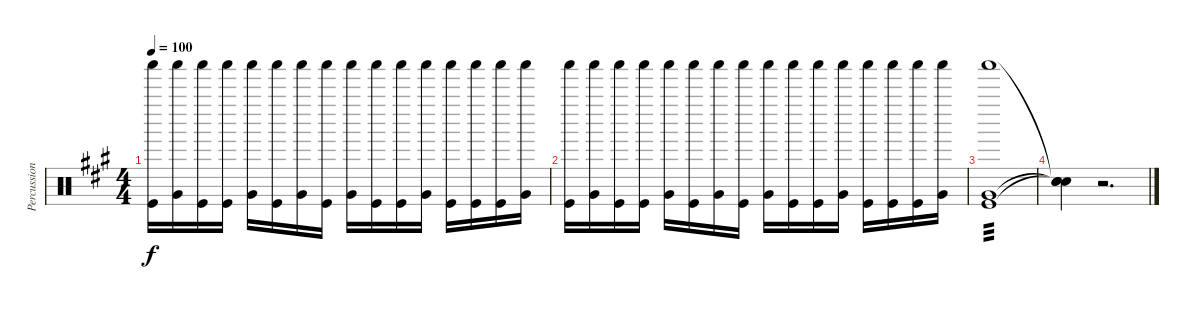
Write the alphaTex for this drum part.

\track ("Percussion" "Percussion") {instrument percussion}
\staff {score}
\articulation defaults
\ts (4 4)
\tempo 100
\clef neutral
\ks a
("Shaker (hit)" "Kick (hit)").16{dy f} ("Shaker (hit)" "Very Low Tom (hit)").16 ("Shaker (hit)" "Kick (hit)").16 ("Shaker (hit)" "Kick (hit)").16 ("Shaker (hit)" "Very Low Tom (hit)").16 ("Shaker (hit)" "Kick (hit)").16 ("Shaker (hit)" "Very Low Tom (hit)").16 ("Shaker (hit)" "Kick (hit)").16 ("Shaker (hit)" "Very Low Tom (hit)").16 ("Shaker (hit)" "Kick (hit)").16 ("Shaker (hit)" "Kick (hit)").16 ("Shaker (hit)" "Very Low Tom (hit)").16 ("Shaker (hit)" "Kick (hit)").16 ("Shaker (hit)" "Kick (hit)").16 ("Shaker (hit)" "Kick (hit)").16 ("Shaker (hit)" "Very Low Tom (hit)").16 |
("Shaker (hit)" "Kick (hit)").16 ("Shaker (hit)" "Very Low Tom (hit)").16 ("Shaker (hit)" "Kick (hit)").16 ("Shaker (hit)" "Kick (hit)").16 ("Shaker (hit)" "Very Low Tom (hit)").16 ("Shaker (hit)" "Kick (hit)").16 ("Shaker (hit)" "Very Low Tom (hit)").16 ("Shaker (hit)" "Kick (hit)").16 ("Shaker (hit)" "Very Low Tom (hit)").16 ("Shaker (hit)" "Kick (hit)").16 ("Shaker (hit)" "Kick (hit)").16 ("Shaker (hit)" "Very Low Tom (hit)").16 ("Shaker (hit)" "Kick (hit)").16 ("Shaker (hit)" "Kick (hit)").16 ("Shaker (hit)" "Kick (hit)").16 ("Shaker (hit)" "Very Low Tom (hit)").16 |
("Shaker (hit)" "Very Low Tom (hit)" "Kick (hit)").1{tp 3} |
("Snare (hit)"{t} "Snare (hit)"{t} "Snare (hit)"{t}).4 r.2{d}
